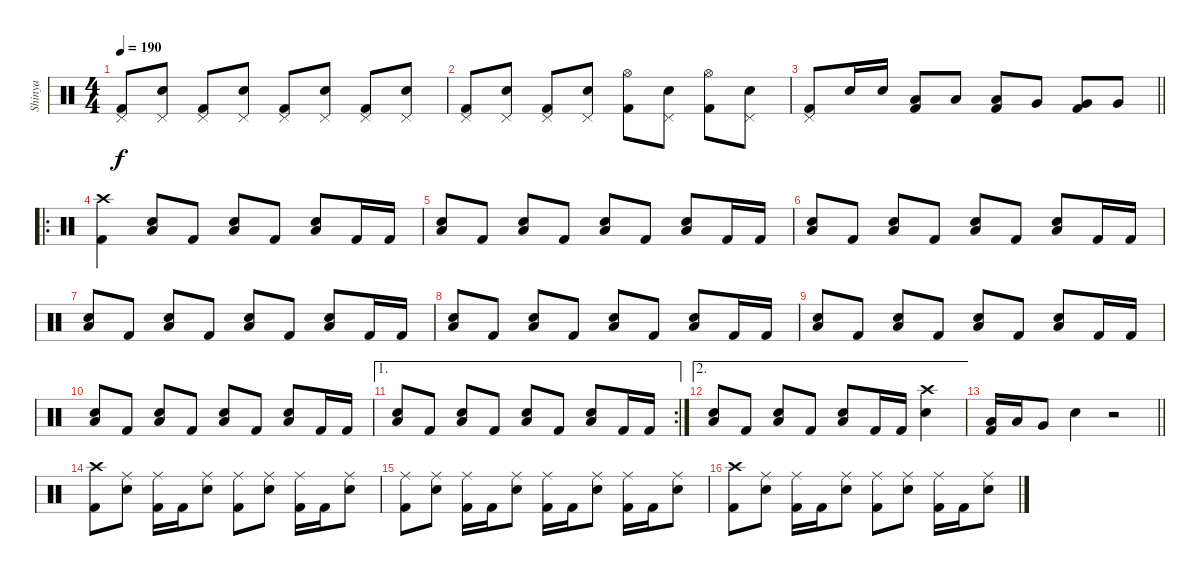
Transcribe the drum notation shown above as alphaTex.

\track ("Shinya" "Shinya") {instrument percussion}
\staff {score}
\articulation defaults
\ts (4 4)
\tempo 190
\clef neutral
\ks c
("Pedal Hi-Hat (hit)" "Kick (hit) 2").8{dy f} ("Pedal Hi-Hat (hit)" "Electric Snare (hit)").8 ("Pedal Hi-Hat (hit)" "Kick (hit) 2").8 ("Pedal Hi-Hat (hit)" "Electric Snare (hit)").8 ("Pedal Hi-Hat (hit)" "Kick (hit) 2").8 ("Pedal Hi-Hat (hit)" "Electric Snare (hit)").8 ("Pedal Hi-Hat (hit)" "Kick (hit) 2").8 ("Pedal Hi-Hat (hit)" "Electric Snare (hit)").8 |
("Pedal Hi-Hat (hit)" "Kick (hit) 2").8 ("Pedal Hi-Hat (hit)" "Electric Snare (hit)").8 ("Pedal Hi-Hat (hit)" "Kick (hit) 2").8 ("Pedal Hi-Hat (hit)" "Electric Snare (hit)").8 ("Hi-Hat (open)" "Kick (hit) 2").8 ("Pedal Hi-Hat (hit)" "Electric Snare (hit)").8 ("Hi-Hat (open)" "Kick (hit) 2").8 ("Pedal Hi-Hat (hit)" "Electric Snare (hit)").8 |
\barLineRight lightlight
("Pedal Hi-Hat (hit)" "Kick (hit) 2").8 "Electric Snare (hit)".16 "Electric Snare (hit)".16 ("Low Tom (hit)" "Kick (hit) 2").8 "Low Tom (hit)".8 ("Low Tom (hit)" "Kick (hit) 2").8 "Very Low Tom (hit)".8 ("Very Low Tom (hit)" "Kick (hit) 2").8 "Very Low Tom (hit)".8 |
\ro
("Crash high (hit)" "Kick (hit) 2").4 ("Low Floor Tom (hit)" "Electric Snare (hit)").8 "Kick (hit) 2".8 ("Low Floor Tom (hit)" "Electric Snare (hit)").8 "Kick (hit) 2".8 ("Low Floor Tom (hit)" "Electric Snare (hit)").8 "Kick (hit) 2".16 "Kick (hit) 2".16 |
("Low Floor Tom (hit)" "Electric Snare (hit)").8 "Kick (hit) 2".8 ("Low Floor Tom (hit)" "Electric Snare (hit)").8 "Kick (hit) 2".8 ("Low Floor Tom (hit)" "Electric Snare (hit)").8 "Kick (hit) 2".8 ("Low Floor Tom (hit)" "Electric Snare (hit)").8 "Kick (hit) 2".16 "Kick (hit) 2".16 |
("Low Floor Tom (hit)" "Electric Snare (hit)").8 "Kick (hit) 2".8 ("Low Floor Tom (hit)" "Electric Snare (hit)").8 "Kick (hit) 2".8 ("Low Floor Tom (hit)" "Electric Snare (hit)").8 "Kick (hit) 2".8 ("Low Floor Tom (hit)" "Electric Snare (hit)").8 "Kick (hit) 2".16 "Kick (hit) 2".16 |
("Low Floor Tom (hit)" "Electric Snare (hit)").8 "Kick (hit) 2".8 ("Low Floor Tom (hit)" "Electric Snare (hit)").8 "Kick (hit) 2".8 ("Low Floor Tom (hit)" "Electric Snare (hit)").8 "Kick (hit) 2".8 ("Low Floor Tom (hit)" "Electric Snare (hit)").8 "Kick (hit) 2".16 "Kick (hit) 2".16 |
("Low Floor Tom (hit)" "Electric Snare (hit)").8 "Kick (hit) 2".8 ("Low Floor Tom (hit)" "Electric Snare (hit)").8 "Kick (hit) 2".8 ("Low Floor Tom (hit)" "Electric Snare (hit)").8 "Kick (hit) 2".8 ("Low Floor Tom (hit)" "Electric Snare (hit)").8 "Kick (hit) 2".16 "Kick (hit) 2".16 |
("Low Floor Tom (hit)" "Electric Snare (hit)").8 "Kick (hit) 2".8 ("Low Floor Tom (hit)" "Electric Snare (hit)").8 "Kick (hit) 2".8 ("Low Floor Tom (hit)" "Electric Snare (hit)").8 "Kick (hit) 2".8 ("Low Floor Tom (hit)" "Electric Snare (hit)").8 "Kick (hit) 2".16 "Kick (hit) 2".16 |
("Low Floor Tom (hit)" "Electric Snare (hit)").8 "Kick (hit) 2".8 ("Low Floor Tom (hit)" "Electric Snare (hit)").8 "Kick (hit) 2".8 ("Low Floor Tom (hit)" "Electric Snare (hit)").8 "Kick (hit) 2".8 ("Low Floor Tom (hit)" "Electric Snare (hit)").8 "Kick (hit) 2".16 "Kick (hit) 2".16 |
\ae 1
\rc 2
("Low Floor Tom (hit)" "Electric Snare (hit)").8 "Kick (hit) 2".8 ("Low Floor Tom (hit)" "Electric Snare (hit)").8 "Kick (hit) 2".8 ("Low Floor Tom (hit)" "Electric Snare (hit)").8 "Kick (hit) 2".8 ("Low Floor Tom (hit)" "Electric Snare (hit)").8 "Kick (hit) 2".16 "Kick (hit) 2".16 |
\ae 2
("Low Floor Tom (hit)" "Electric Snare (hit)").8 "Kick (hit) 2".8 ("Low Floor Tom (hit)" "Electric Snare (hit)").8 "Kick (hit) 2".8 ("Low Floor Tom (hit)" "Electric Snare (hit)").8 "Kick (hit) 2".16 "Kick (hit) 2".16 ("Crash high (hit)" "Electric Snare (hit)").4 |
\barLineRight lightlight
("Low Tom (hit)" "Kick (hit) 2").16 "Low Tom (hit)".16 "Very Low Tom (hit)".8 "Electric Snare (hit)".4 r.2 |
("Crash high (hit)" "Kick (hit) 2").8 ("Ride (middle)" "Electric Snare (hit)").8 ("Ride (middle)" "Kick (hit) 2").16 "Kick (hit) 2".16 ("Ride (middle)" "Electric Snare (hit)").8 ("Ride (middle)" "Kick (hit) 2").8 ("Ride (middle)" "Electric Snare (hit)").8 ("Ride (middle)" "Kick (hit) 2").16 "Kick (hit) 2".16 ("Ride (middle)" "Electric Snare (hit)").8 |
("Ride (middle)" "Kick (hit) 2").8 ("Ride (middle)" "Electric Snare (hit)").8 ("Ride (middle)" "Kick (hit) 2").16 "Kick (hit) 2".16 ("Ride (middle)" "Electric Snare (hit)").8 ("Ride (middle)" "Kick (hit) 2").16 "Kick (hit) 2".16 ("Ride (middle)" "Electric Snare (hit)").8 ("Ride (middle)" "Kick (hit) 2").16 "Kick (hit) 2".16 ("Ride (middle)" "Electric Snare (hit)").8 |
("Crash high (hit)" "Kick (hit) 2").8 ("Ride (middle)" "Electric Snare (hit)").8 ("Ride (middle)" "Kick (hit) 2").16 "Kick (hit) 2".16 ("Ride (middle)" "Electric Snare (hit)").8 ("Ride (middle)" "Kick (hit) 2").8 ("Ride (middle)" "Electric Snare (hit)").8 ("Ride (middle)" "Kick (hit) 2").16 "Kick (hit) 2".16 ("Ride (middle)" "Electric Snare (hit)").8
